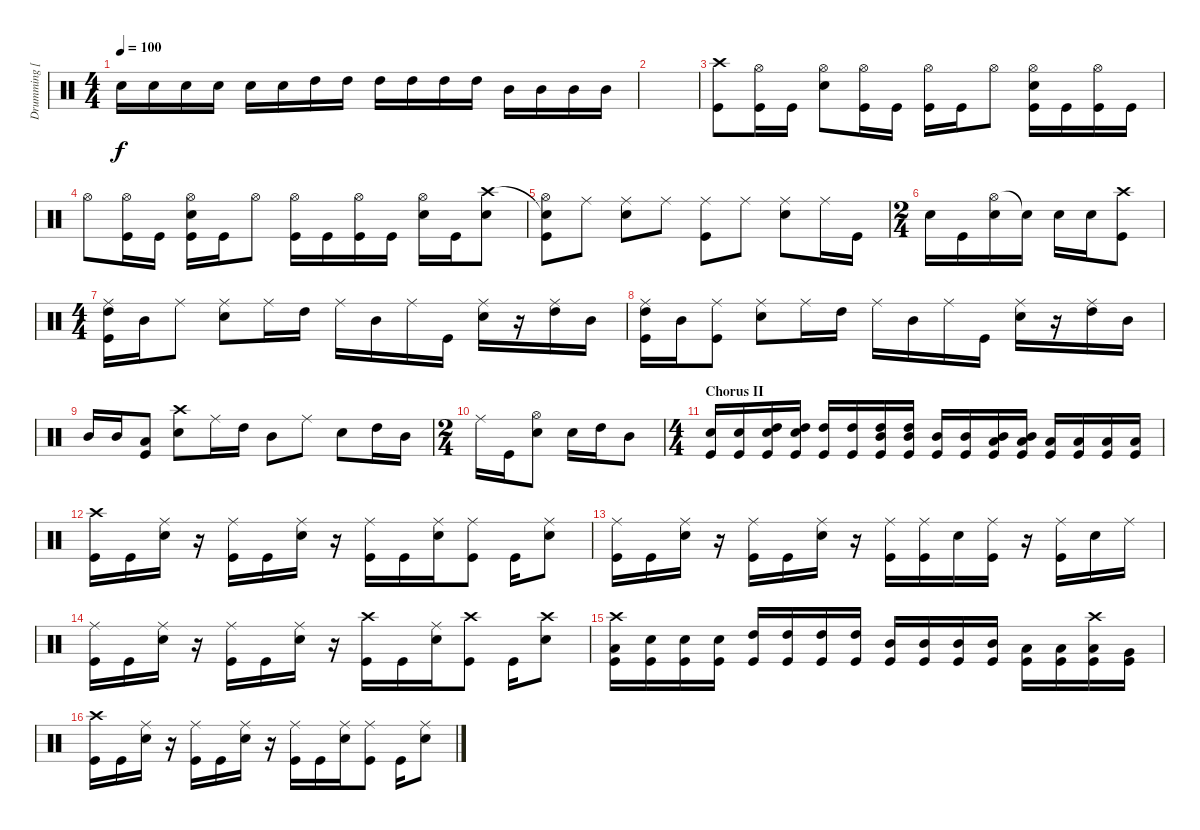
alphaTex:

\track ("Drumming [Jukka]" "Drumming [") {instrument percussion}
\staff {score}
\articulation defaults
\ts (4 4)
\tempo 100
\clef neutral
\ks c "Electric Snare (hit)".16{dy f} "Electric Snare (hit)".16 "Electric Snare (hit)".16 "Electric Snare (hit)".16 "Electric Snare (hit)".16 "Electric Snare (hit)".16 "High Tom (hit)".16 "High Tom (hit)".16 "High Tom (hit)".16 "High Tom (hit)".16 "High Tom (hit)".16 "High Tom (hit)".16 "Mid Tom (hit)".16 "Mid Tom (hit)".16 "Mid Tom (hit)".16 "Mid Tom (hit)".16
|
|
("Crash high (hit)" "Kick (hit)").8 ("Hi-Hat (open)" "Kick (hit)").16 "Kick (hit)".16 ("Hi-Hat (open)" "Electric Snare (hit)").8 ("Hi-Hat (open)" "Kick (hit)").16 "Kick (hit)".16 ("Hi-Hat (open)" "Kick (hit)").16 "Kick (hit)".16 "Hi-Hat (open)".8 ("Hi-Hat (open)" "Electric Snare (hit)" "Kick (hit)").16 "Kick (hit)".16 ("Hi-Hat (open)" "Kick (hit)").16 "Kick (hit)".16 |
"Hi-Hat (open)".8 ("Hi-Hat (open)" "Kick (hit)").16 "Kick (hit)".16 ("Hi-Hat (open)" "Electric Snare (hit)" "Kick (hit)").16 "Kick (hit)".16 "Hi-Hat (open)".8 ("Hi-Hat (open)" "Kick (hit)").16 "Kick (hit)".16 ("Hi-Hat (open)" "Kick (hit)").16 "Kick (hit)".16 ("Hi-Hat (open)" "Electric Snare (hit)").16 "Kick (hit)".16 ("Crash high (hit)" "Electric Snare (hit)").8 |
("Snare (hit)"{t} "Hi-Hat (open)" "Kick (hit)").8 "Ride (middle)".8 ("Ride (middle)" "Electric Snare (hit)").8 "Ride (middle)".8 ("Ride (middle)" "Kick (hit)").8 "Ride (middle)".8 ("Ride (middle)" "Electric Snare (hit)").8 "Ride (middle)".16 "Kick (hit)".16 |
\ts (2 4)
"Electric Snare (hit)".16 "Kick (hit)".16 ("Hi-Hat (open)" "Electric Snare (hit)").16 "Snare (hit)"{t}.16 "Electric Snare (hit)".16 "Electric Snare (hit)".16 ("Crash high (hit)" "Kick (hit)").8 |
\ts (4 4)
("Ride (middle)" "High Tom (hit)" "Kick (hit)").16 "Mid Tom (hit)".16 "Ride (middle)".8 ("Ride (middle)" "Electric Snare (hit)").8 "Ride (middle)".16 "High Tom (hit)".16 "Ride (middle)".16 "Mid Tom (hit)".16 "Ride (middle)".16 "Kick (hit)".16 ("Ride (middle)" "Electric Snare (hit)").16 r.16 ("Ride (middle)" "High Tom (hit)").16 "Mid Tom (hit)".16 |
("Ride (middle)" "High Tom (hit)" "Kick (hit)").16 "Mid Tom (hit)".16 ("Ride (middle)" "Kick (hit)").8 ("Ride (middle)" "Electric Snare (hit)").8 "Ride (middle)".16 "High Tom (hit)".16 "Ride (middle)".16 "Mid Tom (hit)".16 "Ride (middle)".16 "Kick (hit)".16 ("Ride (middle)" "Electric Snare (hit)").16 r.16 ("Ride (middle)" "High Tom (hit)").16 "Mid Tom (hit)".16 |
"Mid Tom (hit)".16 "Mid Tom (hit)".16 ("Low Tom (hit)" "Kick (hit)").8 ("Crash high (hit)" "Electric Snare (hit)").8 "Ride (middle)".16 "High Tom (hit)".16 "Mid Tom (hit)".8 "Ride (middle)".8 "Electric Snare (hit)".8 "High Tom (hit)".16 "Mid Tom (hit)".16 |
\ts (2 4)
"Ride (middle)".16 "Kick (hit)".16 ("Hi-Hat (open)" "Electric Snare (hit)").8 "Electric Snare (hit)".16 "High Tom (hit)".16 "Mid Tom (hit)".8 |
\ts (4 4)
\section ("" "Chorus II")
("Electric Snare (hit)" "Kick (hit)").16 ("Electric Snare (hit)" "Kick (hit)").16 ("High Tom (hit)" "Electric Snare (hit)" "Kick (hit)").16 ("High Tom (hit)" "Electric Snare (hit)" "Kick (hit)").16 ("High Tom (hit)" "Kick (hit)").16 ("High Tom (hit)" "Kick (hit)").16 ("High Tom (hit)" "Mid Tom (hit)" "Kick (hit)").16 ("High Tom (hit)" "Mid Tom (hit)" "Kick (hit)").16 ("Mid Tom (hit)" "Kick (hit)").16 ("Mid Tom (hit)" "Kick (hit)").16 ("Mid Tom (hit)" "Low Tom (hit)" "Kick (hit)").16 ("Mid Tom (hit)" "Low Tom (hit)" "Kick (hit)").16 ("Low Tom (hit)" "Kick (hit)").16 ("Low Tom (hit)" "Kick (hit)").16 ("Low Tom (hit)" "Kick (hit)").16 ("Low Tom (hit)" "Kick (hit)").16 |
("Crash high (hit)" "Kick (hit)").16 "Kick (hit)".16 ("Ride (middle)" "Electric Snare (hit)").16 r.16 ("Ride (middle)" "Kick (hit)").16 "Kick (hit)".16 ("Ride (middle)" "Electric Snare (hit)").16 r.16 ("Ride (middle)" "Kick (hit)").16 "Kick (hit)".16 ("Ride (middle)" "Electric Snare (hit)").16 ("Ride (middle)" "Kick (hit)").8 "Kick (hit)".16 ("Ride (middle)" "Electric Snare (hit)").8 |
("Ride (middle)" "Kick (hit)").16 "Kick (hit)".16 ("Ride (middle)" "Electric Snare (hit)").16 r.16 ("Ride (middle)" "Kick (hit)").16 "Kick (hit)".16 ("Ride (middle)" "Electric Snare (hit)").16 r.16 ("Ride (middle)" "Kick (hit)").16 ("Ride (middle)" "Kick (hit)").16 "Electric Snare (hit)".16 ("Ride (middle)" "Kick (hit)").16 r.16 ("Ride (middle)" "Kick (hit)").16 "Electric Snare (hit)".16 "Ride (middle)".16 |
("Ride (middle)" "Kick (hit)").16 "Kick (hit)".16 ("Ride (middle)" "Electric Snare (hit)").16 r.16 ("Ride (middle)" "Kick (hit)").16 "Kick (hit)".16 ("Ride (middle)" "Electric Snare (hit)").16 r.16 ("Crash high (hit)" "Kick (hit)").16 "Kick (hit)".16 ("Ride (middle)" "Electric Snare (hit)").16 ("Crash high (hit)" "Kick (hit)").8 "Kick (hit)".16 ("Crash high (hit)" "Electric Snare (hit)").8 |
("Crash high (hit)" "Low Tom (hit)" "Kick (hit)").16 ("Electric Snare (hit)" "Kick (hit)").16 ("Electric Snare (hit)" "Kick (hit)").16 ("Electric Snare (hit)" "Kick (hit)").16 ("High Tom (hit)" "Kick (hit)").16 ("High Tom (hit)" "Kick (hit)").16 ("High Tom (hit)" "Kick (hit)").16 ("High Tom (hit)" "Kick (hit)").16 ("Mid Tom (hit)" "Kick (hit)").16 ("Mid Tom (hit)" "Kick (hit)").16 ("Mid Tom (hit)" "Kick (hit)").16 ("Mid Tom (hit)" "Kick (hit)").16 ("Low Tom (hit)" "Kick (hit)").16 ("Low Tom (hit)" "Kick (hit)").16 ("Crash high (hit)" "Low Tom (hit)" "Kick (hit)").16 ("Very Low Tom (hit)" "Kick (hit)").16 |
("Crash high (hit)" "Kick (hit)").16 "Kick (hit)".16 ("Ride (middle)" "Electric Snare (hit)").16 r.16 ("Ride (middle)" "Kick (hit)").16 "Kick (hit)".16 ("Ride (middle)" "Electric Snare (hit)").16 r.16 ("Ride (middle)" "Kick (hit)").16 "Kick (hit)".16 ("Ride (middle)" "Electric Snare (hit)").16 ("Ride (middle)" "Kick (hit)").8 "Kick (hit)".16 ("Ride (middle)" "Electric Snare (hit)").8
